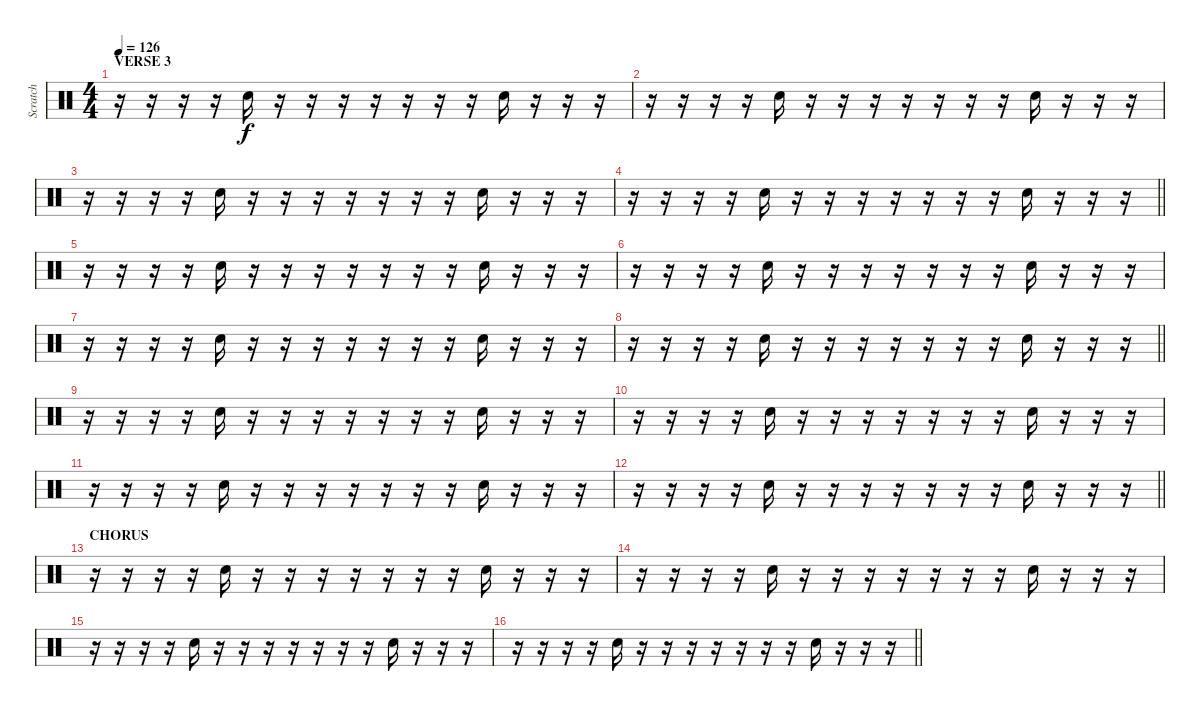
\track ("Scratch" "Scratch") {instrument percussion}
\staff {score}
\articulation defaults
\ts (4 4)
\section ("" "VERSE 3")
\tempo 126
\clef neutral
\ks c
r.16{dy f} r.16 r.16 r.16 "Hand Clap (hit)".16 r.16 r.16 r.16 r.16 r.16 r.16 r.16 "Hand Clap (hit)".16 r.16 r.16 r.16 |
r.16 r.16 r.16 r.16 "Hand Clap (hit)".16 r.16 r.16 r.16 r.16 r.16 r.16 r.16 "Hand Clap (hit)".16 r.16 r.16 r.16 |
r.16 r.16 r.16 r.16 "Hand Clap (hit)".16 r.16 r.16 r.16 r.16 r.16 r.16 r.16 "Hand Clap (hit)".16 r.16 r.16 r.16 |
\barLineRight lightlight
r.16 r.16 r.16 r.16 "Hand Clap (hit)".16 r.16 r.16 r.16 r.16 r.16 r.16 r.16 "Hand Clap (hit)".16 r.16 r.16 r.16 |
r.16 r.16 r.16 r.16 "Hand Clap (hit)".16 r.16 r.16 r.16 r.16 r.16 r.16 r.16 "Hand Clap (hit)".16 r.16 r.16 r.16 |
r.16 r.16 r.16 r.16 "Hand Clap (hit)".16 r.16 r.16 r.16 r.16 r.16 r.16 r.16 "Hand Clap (hit)".16 r.16 r.16 r.16 |
r.16 r.16 r.16 r.16 "Hand Clap (hit)".16 r.16 r.16 r.16 r.16 r.16 r.16 r.16 "Hand Clap (hit)".16 r.16 r.16 r.16 |
\barLineRight lightlight
r.16 r.16 r.16 r.16 "Hand Clap (hit)".16 r.16 r.16 r.16 r.16 r.16 r.16 r.16 "Hand Clap (hit)".16 r.16 r.16 r.16 |
r.16 r.16 r.16 r.16 "Hand Clap (hit)".16 r.16 r.16 r.16 r.16 r.16 r.16 r.16 "Hand Clap (hit)".16 r.16 r.16 r.16 |
r.16 r.16 r.16 r.16 "Hand Clap (hit)".16 r.16 r.16 r.16 r.16 r.16 r.16 r.16 "Hand Clap (hit)".16 r.16 r.16 r.16 |
r.16 r.16 r.16 r.16 "Hand Clap (hit)".16 r.16 r.16 r.16 r.16 r.16 r.16 r.16 "Hand Clap (hit)".16 r.16 r.16 r.16 |
\barLineRight lightlight
r.16 r.16 r.16 r.16 "Hand Clap (hit)".16 r.16 r.16 r.16 r.16 r.16 r.16 r.16 "Hand Clap (hit)".16 r.16 r.16 r.16 |
\section ("" "CHORUS")
r.16 r.16 r.16 r.16 "Hand Clap (hit)".16 r.16 r.16 r.16 r.16 r.16 r.16 r.16 "Hand Clap (hit)".16 r.16 r.16 r.16 |
r.16 r.16 r.16 r.16 "Hand Clap (hit)".16 r.16 r.16 r.16 r.16 r.16 r.16 r.16 "Hand Clap (hit)".16 r.16 r.16 r.16 |
r.16 r.16 r.16 r.16 "Hand Clap (hit)".16 r.16 r.16 r.16 r.16 r.16 r.16 r.16 "Hand Clap (hit)".16 r.16 r.16 r.16 |
\barLineRight lightlight
r.16 r.16 r.16 r.16 "Hand Clap (hit)".16 r.16 r.16 r.16 r.16 r.16 r.16 r.16 "Hand Clap (hit)".16 r.16 r.16 r.16
